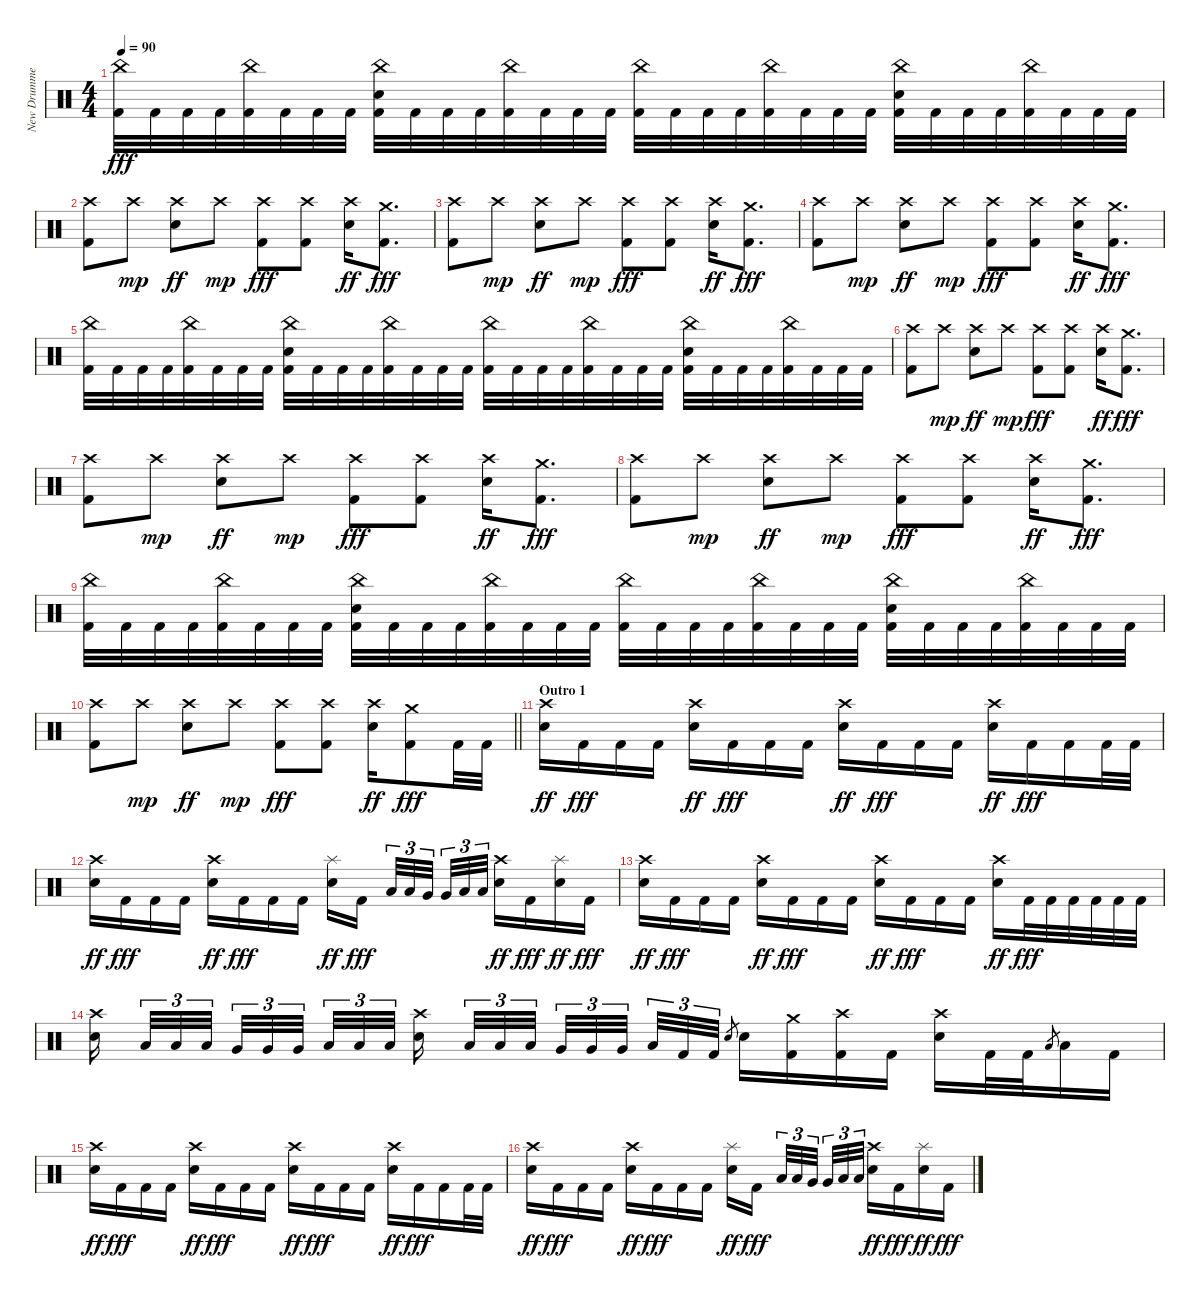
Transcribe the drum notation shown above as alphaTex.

\track ("New Drummer" "New Drumme") {instrument percussion}
\staff {score}
\articulation defaults
\ts (4 4)
\tempo 90
\clef neutral
\ks c
("China (hit)" "Kick (hit) 2").32{dy fff} "Kick (hit) 2".32 "Kick (hit) 2".32 "Kick (hit) 2".32 ("China (hit)" "Kick (hit) 2").32 "Kick (hit) 2".32 "Kick (hit) 2".32 "Kick (hit) 2".32 ("China (hit)" "Electric Snare (hit)" "Kick (hit) 2").32 "Kick (hit) 2".32 "Kick (hit) 2".32 "Kick (hit) 2".32 ("China (hit)" "Kick (hit) 2").32 "Kick (hit) 2".32 "Kick (hit) 2".32 "Kick (hit) 2".32 ("China (hit)" "Kick (hit) 2").32 "Kick (hit) 2".32 "Kick (hit) 2".32 "Kick (hit) 2".32 ("China (hit)" "Kick (hit) 2").32 "Kick (hit) 2".32 "Kick (hit) 2".32 "Kick (hit) 2".32 ("China (hit)" "Electric Snare (hit)" "Kick (hit) 2").32 "Kick (hit) 2".32 "Kick (hit) 2".32 "Kick (hit) 2".32 ("China (hit)" "Kick (hit) 2").32 "Kick (hit) 2".32 "Kick (hit) 2".32 "Kick (hit) 2".32 |
("Crash high (hit)" "Kick (hit) 2").8 "Crash high (hit)".8{dy mp} ("Crash high (hit)" "Electric Snare (hit)").8{dy ff} "Crash high (hit)".8{dy mp} ("Crash high (hit)" "Kick (hit) 2").8{dy fff} ("Crash high (hit)" "Kick (hit) 2").8 ("Crash high (hit)" "Electric Snare (hit)").16{dy ff} ("Crash medium (hit)" "Kick (hit) 2").8{d dy fff} |
("Crash high (hit)" "Kick (hit) 2").8 "Crash high (hit)".8{dy mp} ("Crash high (hit)" "Electric Snare (hit)").8{dy ff} "Crash high (hit)".8{dy mp} ("Crash high (hit)" "Kick (hit) 2").8{dy fff} ("Crash high (hit)" "Kick (hit) 2").8 ("Crash high (hit)" "Electric Snare (hit)").16{dy ff} ("Crash medium (hit)" "Kick (hit) 2").8{d dy fff} |
("Crash high (hit)" "Kick (hit) 2").8 "Crash high (hit)".8{dy mp} ("Crash high (hit)" "Electric Snare (hit)").8{dy ff} "Crash high (hit)".8{dy mp} ("Crash high (hit)" "Kick (hit) 2").8{dy fff} ("Crash high (hit)" "Kick (hit) 2").8 ("Crash high (hit)" "Electric Snare (hit)").16{dy ff} ("Crash medium (hit)" "Kick (hit) 2").8{d dy fff} |
("China (hit)" "Kick (hit) 2").32 "Kick (hit) 2".32 "Kick (hit) 2".32 "Kick (hit) 2".32 ("China (hit)" "Kick (hit) 2").32 "Kick (hit) 2".32 "Kick (hit) 2".32 "Kick (hit) 2".32 ("China (hit)" "Electric Snare (hit)" "Kick (hit) 2").32 "Kick (hit) 2".32 "Kick (hit) 2".32 "Kick (hit) 2".32 ("China (hit)" "Kick (hit) 2").32 "Kick (hit) 2".32 "Kick (hit) 2".32 "Kick (hit) 2".32 ("China (hit)" "Kick (hit) 2").32 "Kick (hit) 2".32 "Kick (hit) 2".32 "Kick (hit) 2".32 ("China (hit)" "Kick (hit) 2").32 "Kick (hit) 2".32 "Kick (hit) 2".32 "Kick (hit) 2".32 ("China (hit)" "Electric Snare (hit)" "Kick (hit) 2").32 "Kick (hit) 2".32 "Kick (hit) 2".32 "Kick (hit) 2".32 ("China (hit)" "Kick (hit) 2").32 "Kick (hit) 2".32 "Kick (hit) 2".32 "Kick (hit) 2".32 |
("Crash high (hit)" "Kick (hit) 2").8 "Crash high (hit)".8{dy mp} ("Crash high (hit)" "Electric Snare (hit)").8{dy ff} "Crash high (hit)".8{dy mp} ("Crash high (hit)" "Kick (hit) 2").8{dy fff} ("Crash high (hit)" "Kick (hit) 2").8 ("Crash high (hit)" "Electric Snare (hit)").16{dy ff} ("Crash medium (hit)" "Kick (hit) 2").8{d dy fff} |
("Crash high (hit)" "Kick (hit) 2").8 "Crash high (hit)".8{dy mp} ("Crash high (hit)" "Electric Snare (hit)").8{dy ff} "Crash high (hit)".8{dy mp} ("Crash high (hit)" "Kick (hit) 2").8{dy fff} ("Crash high (hit)" "Kick (hit) 2").8 ("Crash high (hit)" "Electric Snare (hit)").16{dy ff} ("Crash medium (hit)" "Kick (hit) 2").8{d dy fff} |
("Crash high (hit)" "Kick (hit) 2").8 "Crash high (hit)".8{dy mp} ("Crash high (hit)" "Electric Snare (hit)").8{dy ff} "Crash high (hit)".8{dy mp} ("Crash high (hit)" "Kick (hit) 2").8{dy fff} ("Crash high (hit)" "Kick (hit) 2").8 ("Crash high (hit)" "Electric Snare (hit)").16{dy ff} ("Crash medium (hit)" "Kick (hit) 2").8{d dy fff} |
("China (hit)" "Kick (hit) 2").32 "Kick (hit) 2".32 "Kick (hit) 2".32 "Kick (hit) 2".32 ("China (hit)" "Kick (hit) 2").32 "Kick (hit) 2".32 "Kick (hit) 2".32 "Kick (hit) 2".32 ("China (hit)" "Electric Snare (hit)" "Kick (hit) 2").32 "Kick (hit) 2".32 "Kick (hit) 2".32 "Kick (hit) 2".32 ("China (hit)" "Kick (hit) 2").32 "Kick (hit) 2".32 "Kick (hit) 2".32 "Kick (hit) 2".32 ("China (hit)" "Kick (hit) 2").32 "Kick (hit) 2".32 "Kick (hit) 2".32 "Kick (hit) 2".32 ("China (hit)" "Kick (hit) 2").32 "Kick (hit) 2".32 "Kick (hit) 2".32 "Kick (hit) 2".32 ("China (hit)" "Electric Snare (hit)" "Kick (hit) 2").32 "Kick (hit) 2".32 "Kick (hit) 2".32 "Kick (hit) 2".32 ("China (hit)" "Kick (hit) 2").32 "Kick (hit) 2".32 "Kick (hit) 2".32 "Kick (hit) 2".32 |
\barLineRight lightlight
("Crash high (hit)" "Kick (hit) 2").8 "Crash high (hit)".8{dy mp} ("Crash high (hit)" "Electric Snare (hit)").8{dy ff} "Crash high (hit)".8{dy mp} ("Crash high (hit)" "Kick (hit) 2").8{dy fff} ("Crash high (hit)" "Kick (hit) 2").8 ("Crash high (hit)" "Electric Snare (hit)").16{dy ff} ("Crash medium (hit)" "Kick (hit) 2").8{dy fff} "Kick (hit) 2".32 "Kick (hit) 2".32 |
\section ("" "Outro 1")
("Crash high (hit)" "Electric Snare (hit)").16{dy ff} "Kick (hit) 2".16{dy fff} "Kick (hit) 2".16 "Kick (hit) 2".16 ("Crash high (hit)" "Electric Snare (hit)").16{dy ff} "Kick (hit) 2".16{dy fff} "Kick (hit) 2".16 "Kick (hit) 2".16 ("Crash high (hit)" "Electric Snare (hit)").16{dy ff} "Kick (hit) 2".16{dy fff} "Kick (hit) 2".16 "Kick (hit) 2".16 ("Crash high (hit)" "Electric Snare (hit)").16{dy ff} "Kick (hit) 2".16{dy fff} "Kick (hit) 2".16 "Kick (hit) 2".32 "Kick (hit) 2".32 |
("Crash high (hit)" "Electric Snare (hit)").16{dy ff} "Kick (hit) 2".16{dy fff} "Kick (hit) 2".16 "Kick (hit) 2".16 ("Crash high (hit)" "Electric Snare (hit)").16{dy ff} "Kick (hit) 2".16{dy fff} "Kick (hit) 2".16 "Kick (hit) 2".16 ("Splash (hit)" "Electric Snare (hit)").16{dy ff} "Kick (hit) 2".16{dy fff beam splitsecondary} "Low Tom (hit)".32{tu (3 2)} "Low Tom (hit)".32{tu (3 2)} "Very Low Tom (hit)".32{tu (3 2) beam splitsecondary} "Very Low Tom (hit)".32{tu (3 2)} "Low Floor Tom (hit)".32{tu (3 2)} "Low Floor Tom (hit)".32{tu (3 2)} ("Crash high (hit)" "Electric Snare (hit)").16{dy ff} "Kick (hit) 2".16{dy fff} ("Splash (hit)" "Electric Snare (hit)").16{dy ff} "Kick (hit) 2".16{dy fff} |
("Crash high (hit)" "Electric Snare (hit)").16{dy ff} "Kick (hit) 2".16{dy fff} "Kick (hit) 2".16 "Kick (hit) 2".16 ("Crash high (hit)" "Electric Snare (hit)").16{dy ff} "Kick (hit) 2".16{dy fff} "Kick (hit) 2".16 "Kick (hit) 2".16 ("Crash high (hit)" "Electric Snare (hit)").16{dy ff} "Kick (hit) 2".16{dy fff} "Kick (hit) 2".16 "Kick (hit) 2".16 ("Crash high (hit)" "Electric Snare (hit)").16{dy ff} "Kick (hit) 2".32{dy fff} "Kick (hit) 2".32 "Kick (hit) 2".32 "Kick (hit) 2".32 "Kick (hit) 2".32 "Kick (hit) 2".32 |
("Crash high (hit)" "Electric Snare (hit)").16{beam splitsecondary} "Low Tom (hit)".32{tu (3 2)} "Low Tom (hit)".32{tu (3 2)} "Low Tom (hit)".32{tu (3 2) beam splitsecondary} "Very Low Tom (hit)".32{tu (3 2)} "Very Low Tom (hit)".32{tu (3 2)} "Very Low Tom (hit)".32{tu (3 2) beam splitsecondary} "Low Floor Tom (hit)".32{tu (3 2)} "Low Floor Tom (hit)".32{tu (3 2)} "Low Floor Tom (hit)".32{tu (3 2)} ("Crash high (hit)" "Electric Snare (hit)").16{beam splitsecondary} "Low Tom (hit)".32{tu (3 2)} "Low Tom (hit)".32{tu (3 2)} "Low Tom (hit)".32{tu (3 2) beam splitsecondary} "Very Low Tom (hit)".32{tu (3 2)} "Very Low Tom (hit)".32{tu (3 2)} "Very Low Tom (hit)".32{tu (3 2) beam splitsecondary} "Low Floor Tom (hit)".32{tu (3 2)} "Kick (hit) 2".32{tu (3 2)} "Kick (hit) 2".32{tu (3 2)} "Electric Snare (hit)".8{gr} "Electric Snare (hit)".16 ("Crash medium (hit)" "Kick (hit) 2").16 ("Crash high (hit)" "Kick (hit) 2").16 "Kick (hit) 2".16 ("Crash high (hit)" "Electric Snare (hit)").16 "Kick (hit) 2".32 "Kick (hit) 2".32 "Low Floor Tom (hit)".8{gr} "Low Floor Tom (hit)".16 "Kick (hit) 2".16 |
("Crash high (hit)" "Electric Snare (hit)").16{dy ff} "Kick (hit) 2".16{dy fff} "Kick (hit) 2".16 "Kick (hit) 2".16 ("Crash high (hit)" "Electric Snare (hit)").16{dy ff} "Kick (hit) 2".16{dy fff} "Kick (hit) 2".16 "Kick (hit) 2".16 ("Crash high (hit)" "Electric Snare (hit)").16{dy ff} "Kick (hit) 2".16{dy fff} "Kick (hit) 2".16 "Kick (hit) 2".16 ("Crash high (hit)" "Electric Snare (hit)").16{dy ff} "Kick (hit) 2".16{dy fff} "Kick (hit) 2".16 "Kick (hit) 2".32 "Kick (hit) 2".32 |
("Crash high (hit)" "Electric Snare (hit)").16{dy ff} "Kick (hit) 2".16{dy fff} "Kick (hit) 2".16 "Kick (hit) 2".16 ("Crash high (hit)" "Electric Snare (hit)").16{dy ff} "Kick (hit) 2".16{dy fff} "Kick (hit) 2".16 "Kick (hit) 2".16 ("Splash (hit)" "Electric Snare (hit)").16{dy ff} "Kick (hit) 2".16{dy fff beam splitsecondary} "Low Tom (hit)".32{tu (3 2)} "Low Tom (hit)".32{tu (3 2)} "Very Low Tom (hit)".32{tu (3 2) beam splitsecondary} "Very Low Tom (hit)".32{tu (3 2)} "Low Floor Tom (hit)".32{tu (3 2)} "Low Floor Tom (hit)".32{tu (3 2)} ("Crash high (hit)" "Electric Snare (hit)").16{dy ff} "Kick (hit) 2".16{dy fff} ("Splash (hit)" "Electric Snare (hit)").16{dy ff} "Kick (hit) 2".16{dy fff}
